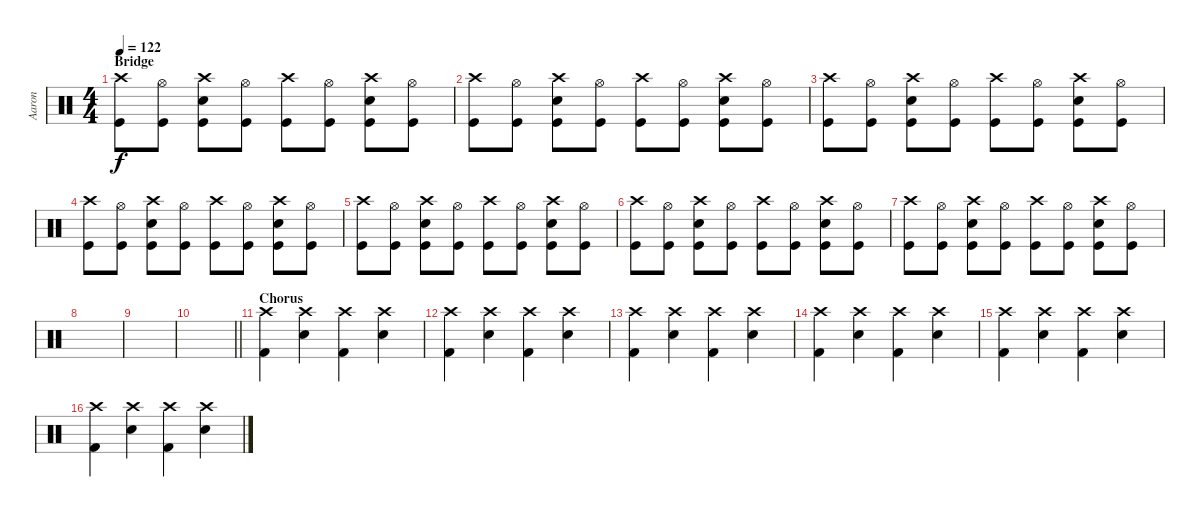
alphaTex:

\track ("Aaron" "Aaron") {instrument percussion}
\staff {score}
\articulation defaults
\ts (4 4)
\section ("" "Bridge")
\tempo 122
\clef neutral
\ks c
("Crash high (hit)" "Kick (hit)").8{dy f} ("Hi-Hat (open)" "Kick (hit)").8 ("Crash high (hit)" "Snare (hit) 2" "Kick (hit)").8 ("Hi-Hat (open)" "Kick (hit)").8 ("Crash high (hit)" "Kick (hit)").8 ("Hi-Hat (open)" "Kick (hit)").8 ("Crash high (hit)" "Snare (hit) 2" "Kick (hit)").8 ("Hi-Hat (open)" "Kick (hit)").8 |
("Crash high (hit)" "Kick (hit)").8 ("Hi-Hat (open)" "Kick (hit)").8 ("Crash high (hit)" "Snare (hit) 2" "Kick (hit)").8 ("Hi-Hat (open)" "Kick (hit)").8 ("Crash high (hit)" "Kick (hit)").8 ("Hi-Hat (open)" "Kick (hit)").8 ("Crash high (hit)" "Snare (hit) 2" "Kick (hit)").8 ("Hi-Hat (open)" "Kick (hit)").8 |
("Crash high (hit)" "Kick (hit)").8 ("Hi-Hat (open)" "Kick (hit)").8 ("Crash high (hit)" "Snare (hit) 2" "Kick (hit)").8 ("Hi-Hat (open)" "Kick (hit)").8 ("Crash high (hit)" "Kick (hit)").8 ("Hi-Hat (open)" "Kick (hit)").8 ("Crash high (hit)" "Snare (hit) 2" "Kick (hit)").8 ("Hi-Hat (open)" "Kick (hit)").8 |
("Crash high (hit)" "Kick (hit)").8 ("Hi-Hat (open)" "Kick (hit)").8 ("Crash high (hit)" "Snare (hit) 2" "Kick (hit)").8 ("Hi-Hat (open)" "Kick (hit)").8 ("Crash high (hit)" "Kick (hit)").8 ("Hi-Hat (open)" "Kick (hit)").8 ("Crash high (hit)" "Snare (hit) 2" "Kick (hit)").8 ("Hi-Hat (open)" "Kick (hit)").8 |
("Crash high (hit)" "Kick (hit)").8 ("Hi-Hat (open)" "Kick (hit)").8 ("Crash high (hit)" "Snare (hit) 2" "Kick (hit)").8 ("Hi-Hat (open)" "Kick (hit)").8 ("Crash high (hit)" "Kick (hit)").8 ("Hi-Hat (open)" "Kick (hit)").8 ("Crash high (hit)" "Snare (hit) 2" "Kick (hit)").8 ("Hi-Hat (open)" "Kick (hit)").8 |
("Crash high (hit)" "Kick (hit)").8 ("Hi-Hat (open)" "Kick (hit)").8 ("Crash high (hit)" "Snare (hit) 2" "Kick (hit)").8 ("Hi-Hat (open)" "Kick (hit)").8 ("Crash high (hit)" "Kick (hit)").8 ("Hi-Hat (open)" "Kick (hit)").8 ("Crash high (hit)" "Snare (hit) 2" "Kick (hit)").8 ("Hi-Hat (open)" "Kick (hit)").8 |
("Crash high (hit)" "Kick (hit)").8 ("Hi-Hat (open)" "Kick (hit)").8 ("Crash high (hit)" "Snare (hit) 2" "Kick (hit)").8 ("Hi-Hat (open)" "Kick (hit)").8 ("Crash high (hit)" "Kick (hit)").8 ("Hi-Hat (open)" "Kick (hit)").8 ("Crash high (hit)" "Snare (hit) 2" "Kick (hit)").8 ("Hi-Hat (open)" "Kick (hit)").8 |
|
|
\barLineRight lightlight
|
\section ("" "Chorus")
("Crash high (hit)" "Kick (hit) 2").4 ("Crash high (hit)" "Snare (hit) 2").4 ("Crash high (hit)" "Kick (hit) 2").4 ("Crash high (hit)" "Snare (hit) 2").4 |
("Crash high (hit)" "Kick (hit) 2").4 ("Crash high (hit)" "Snare (hit) 2").4 ("Crash high (hit)" "Kick (hit) 2").4 ("Crash high (hit)" "Snare (hit) 2").4 |
("Crash high (hit)" "Kick (hit) 2").4 ("Crash high (hit)" "Snare (hit) 2").4 ("Crash high (hit)" "Kick (hit) 2").4 ("Crash high (hit)" "Snare (hit) 2").4 |
("Crash high (hit)" "Kick (hit) 2").4 ("Crash high (hit)" "Snare (hit) 2").4 ("Crash high (hit)" "Kick (hit) 2").4 ("Crash high (hit)" "Snare (hit) 2").4 |
("Crash high (hit)" "Kick (hit) 2").4 ("Crash high (hit)" "Snare (hit) 2").4 ("Crash high (hit)" "Kick (hit) 2").4 ("Crash high (hit)" "Snare (hit) 2").4 |
("Crash high (hit)" "Kick (hit) 2").4 ("Crash high (hit)" "Snare (hit) 2").4 ("Crash high (hit)" "Kick (hit) 2").4 ("Crash high (hit)" "Snare (hit) 2").4
